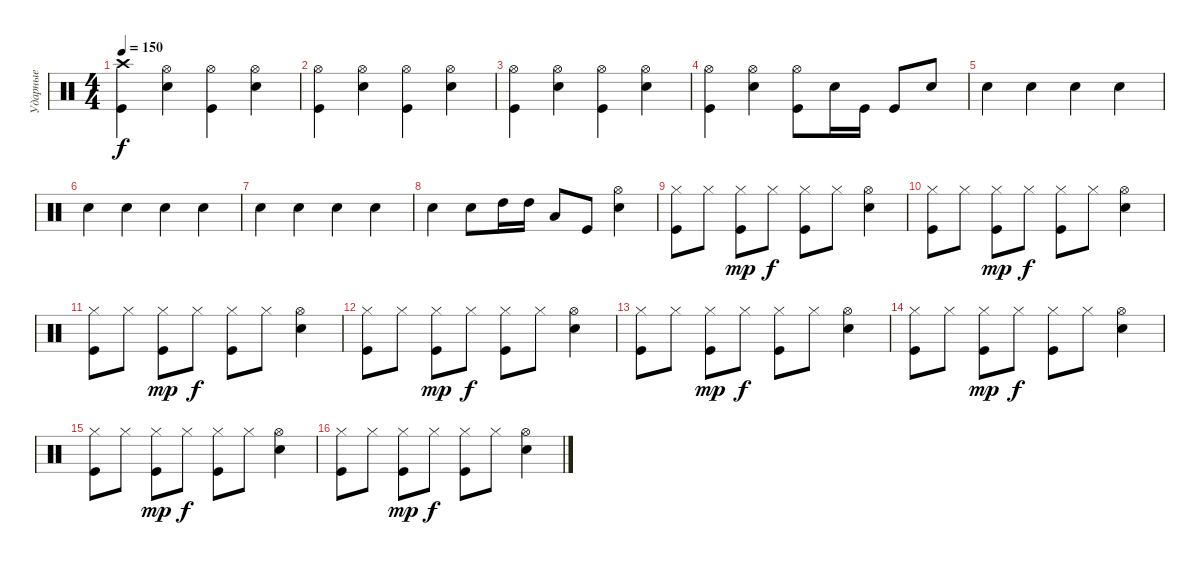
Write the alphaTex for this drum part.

\track ("Ударные" "Ударные") {instrument percussion}
\staff {score}
\articulation defaults
\ts (4 4)
\tempo 150
\clef neutral
\ks c
("Crash high (hit)" "Kick (hit)").4{dy f} ("Hi-Hat (open)" "Snare (hit) 2").4 ("Hi-Hat (open)" "Kick (hit)").4 ("Hi-Hat (open)" "Snare (hit) 2").4 |
("Hi-Hat (open)" "Kick (hit)").4 ("Hi-Hat (open)" "Snare (hit) 2").4 ("Hi-Hat (open)" "Kick (hit)").4 ("Hi-Hat (open)" "Snare (hit) 2").4 |
("Hi-Hat (open)" "Kick (hit)").4 ("Hi-Hat (open)" "Snare (hit) 2").4 ("Hi-Hat (open)" "Kick (hit)").4 ("Hi-Hat (open)" "Snare (hit) 2").4 |
("Hi-Hat (open)" "Kick (hit)").4 ("Hi-Hat (open)" "Snare (hit) 2").4 ("Hi-Hat (open)" "Kick (hit)").8 "Snare (hit) 2".16 "Kick (hit)".16 "Kick (hit)".8 "Snare (hit) 2".8 |
"Snare (hit) 2".4 "Snare (hit) 2".4 "Snare (hit) 2".4 "Snare (hit) 2".4 |
"Snare (hit) 2".4 "Snare (hit) 2".4 "Snare (hit) 2".4 "Snare (hit) 2".4 |
"Snare (hit) 2".4 "Snare (hit) 2".4 "Snare (hit) 2".4 "Snare (hit) 2".4 |
"Snare (hit) 2".4 "Snare (hit) 2".8 "High Tom (hit)".16 "High Tom (hit)".16 "Low Tom (hit)".8 "Kick (hit)".8 ("Hi-Hat (open)" "Snare (hit) 2").4 |
("Hi-Hat (closed)" "Kick (hit)").8 "Hi-Hat (closed)".8 ("Hi-Hat (closed)" "Kick (hit)").8{dy mp} "Hi-Hat (closed)".8{dy f} ("Hi-Hat (closed)" "Kick (hit)").8 "Hi-Hat (closed)".8 ("Hi-Hat (open)" "Snare (hit) 2").4 |
("Hi-Hat (closed)" "Kick (hit)").8 "Hi-Hat (closed)".8 ("Hi-Hat (closed)" "Kick (hit)").8{dy mp} "Hi-Hat (closed)".8{dy f} ("Hi-Hat (closed)" "Kick (hit)").8 "Hi-Hat (closed)".8 ("Hi-Hat (open)" "Snare (hit) 2").4 |
("Hi-Hat (closed)" "Kick (hit)").8 "Hi-Hat (closed)".8 ("Hi-Hat (closed)" "Kick (hit)").8{dy mp} "Hi-Hat (closed)".8{dy f} ("Hi-Hat (closed)" "Kick (hit)").8 "Hi-Hat (closed)".8 ("Hi-Hat (open)" "Snare (hit) 2").4 |
("Hi-Hat (closed)" "Kick (hit)").8 "Hi-Hat (closed)".8 ("Hi-Hat (closed)" "Kick (hit)").8{dy mp} "Hi-Hat (closed)".8{dy f} ("Hi-Hat (closed)" "Kick (hit)").8 "Hi-Hat (closed)".8 ("Hi-Hat (open)" "Snare (hit) 2").4 |
("Hi-Hat (closed)" "Kick (hit)").8 "Hi-Hat (closed)".8 ("Hi-Hat (closed)" "Kick (hit)").8{dy mp} "Hi-Hat (closed)".8{dy f} ("Hi-Hat (closed)" "Kick (hit)").8 "Hi-Hat (closed)".8 ("Hi-Hat (open)" "Snare (hit) 2").4 |
("Hi-Hat (closed)" "Kick (hit)").8 "Hi-Hat (closed)".8 ("Hi-Hat (closed)" "Kick (hit)").8{dy mp} "Hi-Hat (closed)".8{dy f} ("Hi-Hat (closed)" "Kick (hit)").8 "Hi-Hat (closed)".8 ("Hi-Hat (open)" "Snare (hit) 2").4 |
("Hi-Hat (closed)" "Kick (hit)").8 "Hi-Hat (closed)".8 ("Hi-Hat (closed)" "Kick (hit)").8{dy mp} "Hi-Hat (closed)".8{dy f} ("Hi-Hat (closed)" "Kick (hit)").8 "Hi-Hat (closed)".8 ("Hi-Hat (open)" "Snare (hit) 2").4 |
("Hi-Hat (closed)" "Kick (hit)").8 "Hi-Hat (closed)".8 ("Hi-Hat (closed)" "Kick (hit)").8{dy mp} "Hi-Hat (closed)".8{dy f} ("Hi-Hat (closed)" "Kick (hit)").8 "Hi-Hat (closed)".8 ("Hi-Hat (open)" "Snare (hit) 2").4
